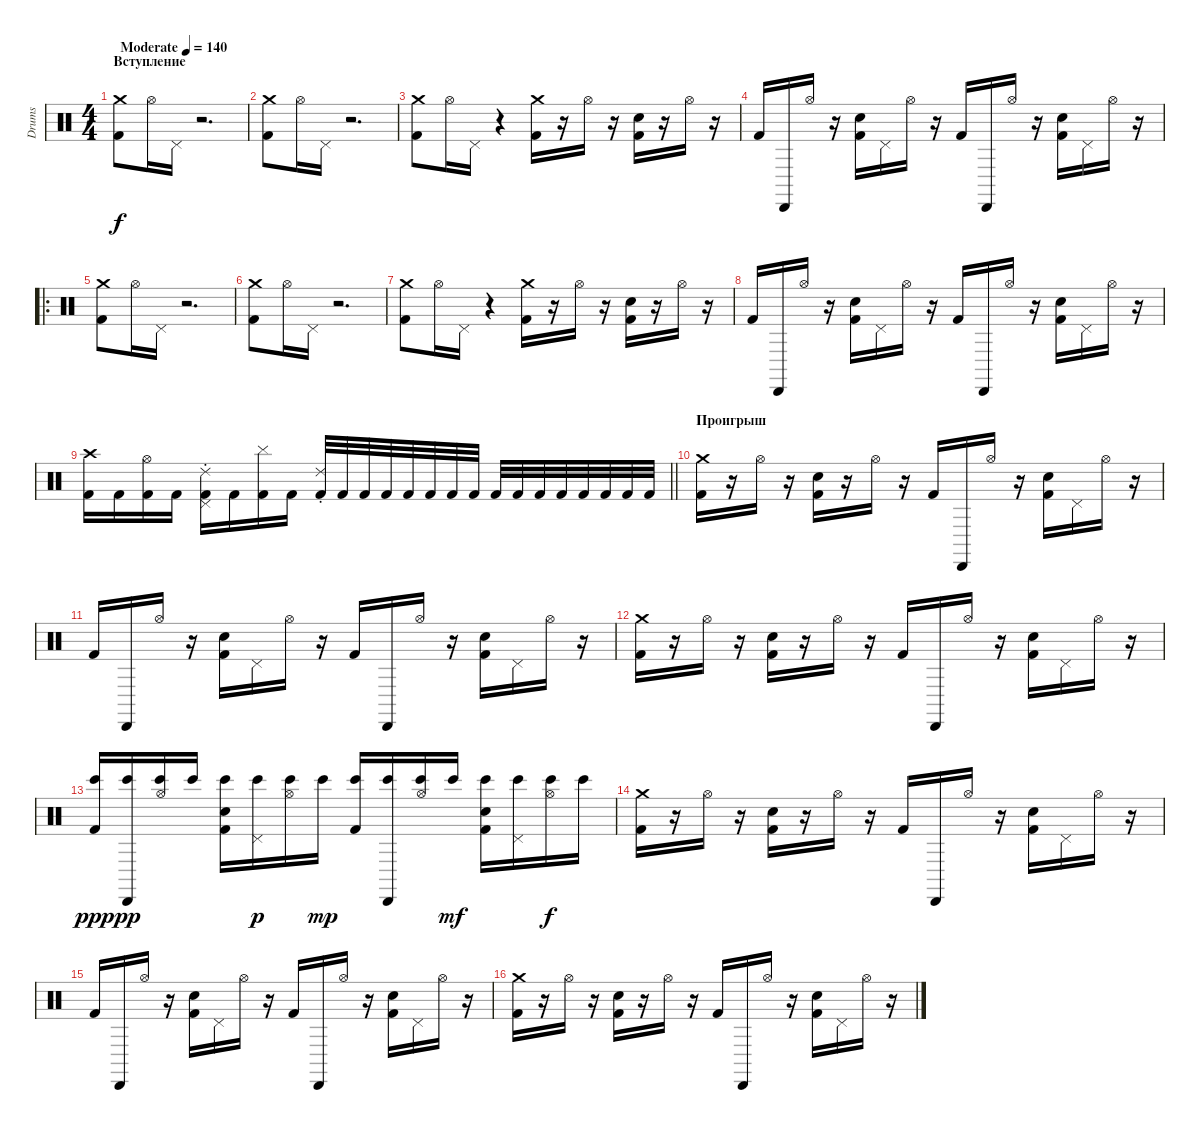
\track ("Drums" "Drums") {instrument percussion}
\staff {score}
\articulation defaults
\ts (4 4)
\section ("" "Вступление")
\tempo (140 "Moderate")
\clef neutral
\ks c
("Crash medium (hit)" "Kick (hit) 2").8{dy f} "Hi-Hat (open)".16 "Pedal Hi-Hat (hit)".16 r.2{d} |
("Crash medium (hit)" "Kick (hit) 2").8 "Hi-Hat (open)".16 "Pedal Hi-Hat (hit)".16 r.2{d} |
("Kick (hit) 2" "Crash medium (hit)").8 "Hi-Hat (open)".16 "Pedal Hi-Hat (hit)".16 r.4 ("Crash medium (hit)" "Kick (hit) 2").16 r.16 "Hi-Hat (open)".16 r.16 ("Kick (hit) 2" "Hand Clap (hit)").16 r.16 "Hi-Hat (open)".16 r.16 |
"Kick (hit) 2".16 "Cabasa (hit)".16 "Hi-Hat (open)".16 r.16 ("Kick (hit) 2" "Hand Clap (hit)").16 "Pedal Hi-Hat (hit)".16 "Hi-Hat (open)".16 r.16 "Kick (hit) 2".16 "Cabasa (hit)".16 "Hi-Hat (open)".16 r.16 ("Hand Clap (hit)" "Kick (hit) 2").16 "Pedal Hi-Hat (hit)".16 "Hi-Hat (open)".16 r.16 |
\ro
("Crash medium (hit)" "Kick (hit) 2").8 "Hi-Hat (open)".16 "Pedal Hi-Hat (hit)".16 r.2{d} |
("Kick (hit) 2" "Crash medium (hit)").8 "Hi-Hat (open)".16 "Pedal Hi-Hat (hit)".16 r.2{d} |
("Kick (hit) 2" "Crash medium (hit)").8 "Hi-Hat (open)".16 "Pedal Hi-Hat (hit)".16 r.4 ("Crash medium (hit)" "Kick (hit) 2").16 r.16 "Hi-Hat (open)".16 r.16 ("Kick (hit) 2" "Hand Clap (hit)").16 r.16 "Hi-Hat (open)".16 r.16 |
"Kick (hit) 2".16 "Cabasa (hit)".16 "Hi-Hat (open)".16 r.16 ("Hand Clap (hit)" "Kick (hit) 2").16 "Pedal Hi-Hat (hit)".16 "Hi-Hat (open)".16 r.16 "Kick (hit) 2".16 "Cabasa (hit)".16 "Hi-Hat (open)".16 r.16 ("Hand Clap (hit)" "Kick (hit) 2").16 "Pedal Hi-Hat (hit)".16 "Hi-Hat (open)".16 r.16 |
\barLineRight lightlight
("Crash high (hit)" "Kick (hit) 2").16 "Kick (hit) 2".16 ("Hi-Hat (open)" "Kick (hit) 2").16 "Kick (hit) 2".16 ("Ride (choke) 2" "Pedal Hi-Hat (hit)" "Kick (hit) 2").16 "Kick (hit) 2".16 ("Cymbal (hit)" "Kick (hit) 2").16 "Kick (hit) 2".16 ("Ride (choke) 2" "Kick (hit) 2").32 "Kick (hit) 2".32 "Kick (hit) 2".32 "Kick (hit) 2".32 "Kick (hit) 2".32 "Kick (hit) 2".32 "Kick (hit) 2".32 "Kick (hit) 2".32 "Kick (hit) 2".32 "Kick (hit) 2".32 "Kick (hit) 2".32 "Kick (hit) 2".32 "Kick (hit) 2".32 "Kick (hit) 2".32 "Kick (hit) 2".32 "Kick (hit) 2".32 |
\section ("" "Проигрыш")
("Kick (hit) 2" "Crash medium (hit)").16 r.16 "Hi-Hat (open)".16 r.16 ("Hand Clap (hit)" "Kick (hit) 2").16 r.16 "Hi-Hat (open)".16 r.16 "Kick (hit) 2".16 "Cabasa (hit)".16 "Hi-Hat (open)".16 r.16 ("Kick (hit) 2" "Hand Clap (hit)").16 "Pedal Hi-Hat (hit)".16 "Hi-Hat (open)".16 r.16 |
"Kick (hit) 2".16 "Cabasa (hit)".16 "Hi-Hat (open)".16 r.16 ("Kick (hit) 2" "Hand Clap (hit)").16 "Pedal Hi-Hat (hit)".16 "Hi-Hat (open)".16 r.16 "Kick (hit) 2".16 "Cabasa (hit)".16 "Hi-Hat (open)".16 r.16 ("Hand Clap (hit)" "Kick (hit) 2").16 "Pedal Hi-Hat (hit)".16 "Hi-Hat (open)".16 r.16 |
("Crash medium (hit)" "Kick (hit) 2").16 r.16 "Hi-Hat (open)".16 r.16 ("Kick (hit) 2" "Hand Clap (hit)").16 r.16 "Hi-Hat (open)".16 r.16 "Kick (hit) 2".16 "Cabasa (hit)".16 "Hi-Hat (open)".16 r.16 ("Hand Clap (hit)" "Kick (hit) 2").16 "Pedal Hi-Hat (hit)".16 "Hi-Hat (open)".16 r.16 |
("Kick (hit) 2" "Bongo High (hit)").16{dy ppp} ("Bongo High (hit)" "Cabasa (hit)").16{dy pp} ("Hi-Hat (open)" "Bongo High (hit)").16 "Bongo High (hit)".16 ("Kick (hit) 2" "Hand Clap (hit)" "Bongo High (hit)").16 ("Bongo High (hit)" "Pedal Hi-Hat (hit)").16{dy p} ("Hi-Hat (open)" "Bongo High (hit)").16 "Bongo High (hit)".16{dy mp} ("Kick (hit) 2" "Bongo High (hit)").16 ("Bongo High (hit)" "Cabasa (hit)").16 ("Hi-Hat (open)" "Bongo High (hit)").16 "Bongo High (hit)".16{dy mf} ("Hand Clap (hit)" "Kick (hit) 2" "Bongo High (hit)").16 ("Bongo High (hit)" "Pedal Hi-Hat (hit)").16 ("Hi-Hat (open)" "Bongo High (hit)").16{dy f} "Bongo High (hit)".16 |
("Crash medium (hit)" "Kick (hit) 2").16 r.16 "Hi-Hat (open)".16 r.16 ("Kick (hit) 2" "Hand Clap (hit)").16 r.16 "Hi-Hat (open)".16 r.16 "Kick (hit) 2".16 "Cabasa (hit)".16 "Hi-Hat (open)".16 r.16 ("Kick (hit) 2" "Hand Clap (hit)").16 "Pedal Hi-Hat (hit)".16 "Hi-Hat (open)".16 r.16 |
"Kick (hit) 2".16 "Cabasa (hit)".16 "Hi-Hat (open)".16 r.16 ("Kick (hit) 2" "Hand Clap (hit)").16 "Pedal Hi-Hat (hit)".16 "Hi-Hat (open)".16 r.16 "Kick (hit) 2".16 "Cabasa (hit)".16 "Hi-Hat (open)".16 r.16 ("Hand Clap (hit)" "Kick (hit) 2").16 "Pedal Hi-Hat (hit)".16 "Hi-Hat (open)".16 r.16 |
("Crash medium (hit)" "Kick (hit) 2").16 r.16 "Hi-Hat (open)".16 r.16 ("Kick (hit) 2" "Hand Clap (hit)").16 r.16 "Hi-Hat (open)".16 r.16 "Kick (hit) 2".16 "Cabasa (hit)".16 "Hi-Hat (open)".16 r.16 ("Hand Clap (hit)" "Kick (hit) 2").16 "Pedal Hi-Hat (hit)".16 "Hi-Hat (open)".16 r.16
